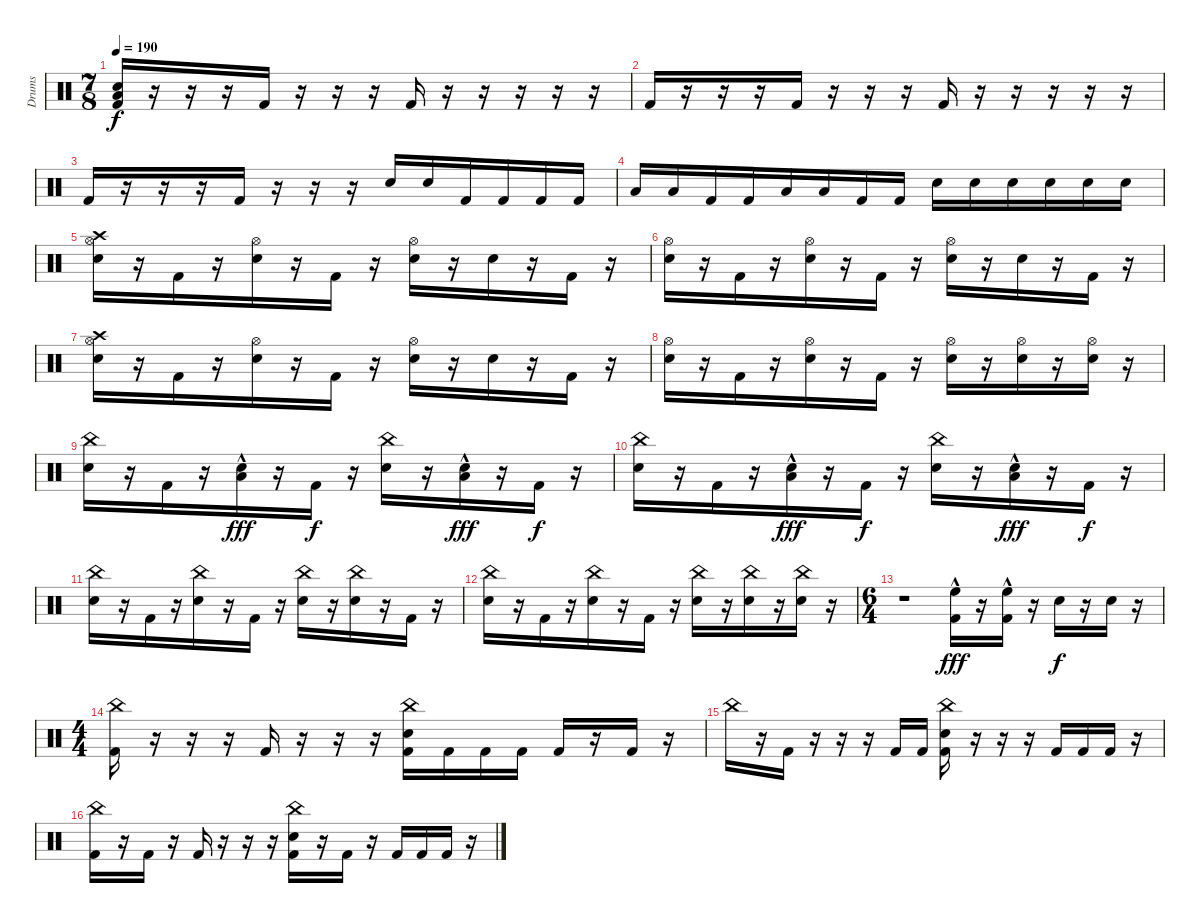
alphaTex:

\track ("Drums" "Drums") {instrument percussion}
\staff {score}
\articulation defaults
\ts (7 8)
\tempo 190
\clef neutral
\ks c
("Low Tom (hit)" "Electric Snare (hit)" "Kick (hit) 2").16{dy f} r.16 r.16 r.16 "Kick (hit) 2".16 r.16 r.16 r.16 "Kick (hit) 2".16 r.16 r.16 r.16 r.16 r.16 |
"Kick (hit) 2".16 r.16 r.16 r.16 "Kick (hit) 2".16 r.16 r.16 r.16 "Kick (hit) 2".16 r.16 r.16 r.16 r.16 r.16 |
"Kick (hit) 2".16 r.16 r.16 r.16 "Kick (hit) 2".16 r.16 r.16 r.16 "Electric Snare (hit)".16 "Electric Snare (hit)".16 "Kick (hit) 2".16 "Kick (hit) 2".16 "Kick (hit) 2".16 "Kick (hit) 2".16 |
"Low Tom (hit)".16 "Low Tom (hit)".16 "Kick (hit) 2".16 "Kick (hit) 2".16 "Low Floor Tom (hit)".16 "Low Floor Tom (hit)".16 "Kick (hit) 2".16 "Kick (hit) 2".16 "Electric Snare (hit)".16 "Electric Snare (hit)".16 "Electric Snare (hit)".16 "Electric Snare (hit)".16 "Electric Snare (hit)".16 "Electric Snare (hit)".16 |
("Crash high (hit)" "Hi-Hat (open)" "Electric Snare (hit)").16 r.16 "Kick (hit) 2".16 r.16 ("Hi-Hat (open)" "Electric Snare (hit)").16 r.16 "Kick (hit) 2".16 r.16 ("Hi-Hat (open)" "Electric Snare (hit)").16 r.16 "Electric Snare (hit)".16 r.16 "Kick (hit) 2".16 r.16 |
("Hi-Hat (open)" "Electric Snare (hit)").16 r.16 "Kick (hit) 2".16 r.16 ("Hi-Hat (open)" "Electric Snare (hit)").16 r.16 "Kick (hit) 2".16 r.16 ("Hi-Hat (open)" "Electric Snare (hit)").16 r.16 "Electric Snare (hit)".16 r.16 "Kick (hit) 2".16 r.16 |
("Crash high (hit)" "Hi-Hat (open)" "Electric Snare (hit)").16 r.16 "Kick (hit) 2".16 r.16 ("Hi-Hat (open)" "Electric Snare (hit)").16 r.16 "Kick (hit) 2".16 r.16 ("Hi-Hat (open)" "Electric Snare (hit)").16 r.16 "Electric Snare (hit)".16 r.16 "Kick (hit) 2".16 r.16 |
("Hi-Hat (open)" "Electric Snare (hit)").16 r.16 "Kick (hit) 2".16 r.16 ("Hi-Hat (open)" "Electric Snare (hit)").16 r.16 "Kick (hit) 2".16 r.16 ("Hi-Hat (open)" "Electric Snare (hit)").16 r.16 ("Hi-Hat (open)" "Electric Snare (hit)").16 r.16 ("Hi-Hat (open)" "Electric Snare (hit)").16 r.16 |
("China (hit)" "Electric Snare (hit)").16 r.16 "Kick (hit) 2".16 r.16 ("Electric Snare (hit)" "Low Floor Tom (hit)"{hac}).16{dy fff} r.16 "Kick (hit) 2".16{dy f} r.16 ("China (hit)" "Electric Snare (hit)").16 r.16 ("Electric Snare (hit)" "Low Floor Tom (hit)"{hac}).16{dy fff} r.16 "Kick (hit) 2".16{dy f} r.16 |
("China (hit)" "Electric Snare (hit)").16 r.16 "Kick (hit) 2".16 r.16 ("Electric Snare (hit)" "Low Floor Tom (hit)"{hac}).16{dy fff} r.16 "Kick (hit) 2".16{dy f} r.16 ("China (hit)" "Electric Snare (hit)").16 r.16 ("Electric Snare (hit)" "Low Floor Tom (hit)"{hac}).16{dy fff} r.16 "Kick (hit) 2".16{dy f} r.16 |
("China (hit)" "Electric Snare (hit)").16 r.16 "Kick (hit) 2".16 r.16 ("China (hit)" "Electric Snare (hit)").16 r.16 "Kick (hit) 2".16 r.16 ("China (hit)" "Electric Snare (hit)").16 r.16 ("China (hit)" "Electric Snare (hit)").16 r.16 "Kick (hit) 2".16 r.16 |
("China (hit)" "Electric Snare (hit)").16 r.16 "Kick (hit) 2".16 r.16 ("China (hit)" "Electric Snare (hit)").16 r.16 "Kick (hit) 2".16 r.16 ("China (hit)" "Electric Snare (hit)").16 r.16 ("China (hit)" "Electric Snare (hit)").16 r.16 ("China (hit)" "Electric Snare (hit)").16 r.16 |
\ts (6 4)
r.1 ("High Floor Tom (hit)"{hac} "Kick (hit) 2"{hac}).16{dy fff} r.16 ("High Floor Tom (hit)"{hac} "Kick (hit) 2"{hac}).16 r.16 "Electric Snare (hit)".16{dy f} r.16 "Electric Snare (hit)".16 r.16 |
\ts (4 4)
("China (hit)" "Kick (hit) 2").16 r.16 r.16 r.16 "Kick (hit) 2".16 r.16 r.16 r.16 ("China (hit)" "Electric Snare (hit)" "Kick (hit) 2").16 "Kick (hit) 2".16 "Kick (hit) 2".16 "Kick (hit) 2".16 "Kick (hit) 2".16 r.16 "Kick (hit) 2".16 r.16 |
"China (hit)".16 r.16 "Kick (hit) 2".16 r.16 r.16 r.16 "Kick (hit) 2".16 "Kick (hit) 2".16 ("China (hit)" "Electric Snare (hit)" "Kick (hit) 2").16 r.16 r.16 r.16 "Kick (hit) 2".16 "Kick (hit) 2".16 "Kick (hit) 2".16 r.16 |
("China (hit)" "Kick (hit) 2").16 r.16 "Kick (hit) 2".16 r.16 "Kick (hit) 2".16 r.16 r.16 r.16 ("China (hit)" "Electric Snare (hit)" "Kick (hit) 2").16 r.16 "Kick (hit) 2".16 r.16 "Kick (hit) 2".16 "Kick (hit) 2".16 "Kick (hit) 2".16 r.16
